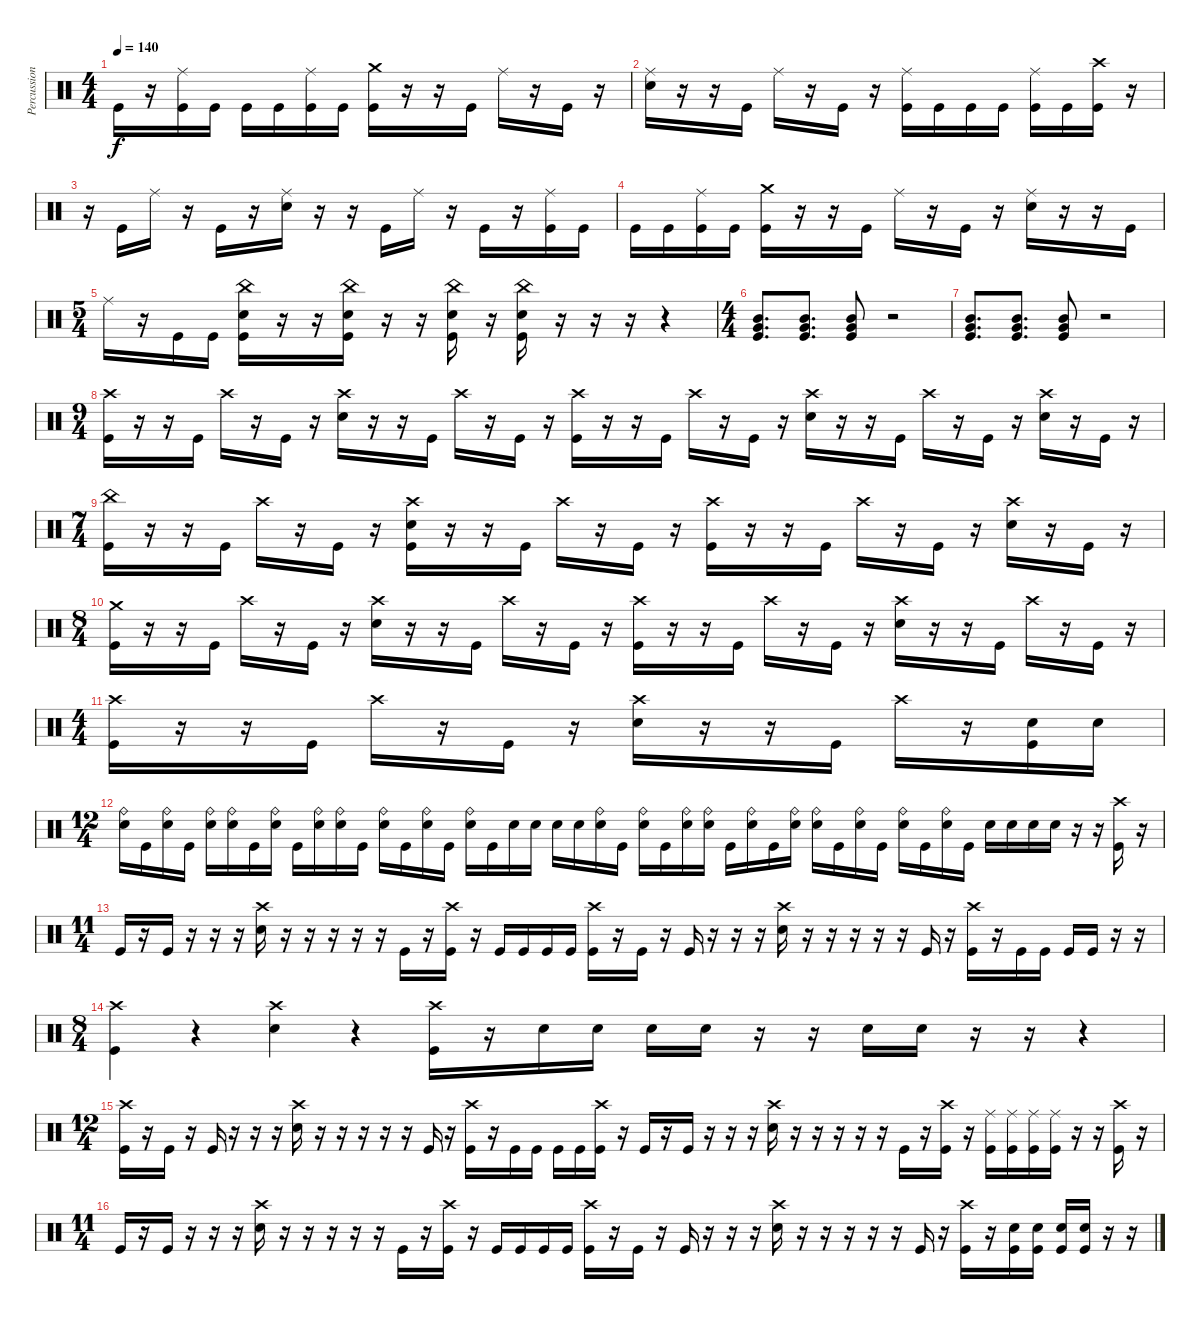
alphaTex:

\track ("Percussion" "Percussion") {instrument percussion}
\staff {score}
\articulation defaults
\ts (4 4)
\tempo 140
\clef neutral
\ks c "Kick (hit)".16{dy f}
r.16 ("Ride (middle)" "Kick (hit)").16 "Kick (hit)".16 "Kick (hit)".16 "Kick (hit)".16 ("Ride (middle)" "Kick (hit)").16 "Kick (hit)".16 ("Crash medium (hit)" "Kick (hit)").16 r.16 r.16 "Kick (hit)".16 "Ride (middle)".16 r.16 "Kick (hit)".16 r.16 |
("Ride (middle)" "Snare (hit) 2").16 r.16 r.16 "Kick (hit)".16 "Ride (middle)".16 r.16 "Kick (hit)".16 r.16 ("Ride (middle)" "Kick (hit)").16 "Kick (hit)".16 "Kick (hit)".16 "Kick (hit)".16 ("Ride (middle)" "Kick (hit)").16 "Kick (hit)".16 ("Crash high (hit)" "Kick (hit)").16 r.16 |
r.16 "Kick (hit)".16 "Ride (middle)".16 r.16 "Kick (hit)".16 r.16 ("Ride (middle)" "Snare (hit) 2").16 r.16 r.16 "Kick (hit)".16 "Ride (middle)".16 r.16 "Kick (hit)".16 r.16 ("Ride (middle)" "Kick (hit)").16 "Kick (hit)".16 |
"Kick (hit)".16 "Kick (hit)".16 ("Ride (middle)" "Kick (hit)").16 "Kick (hit)".16 ("Crash medium (hit)" "Kick (hit)").16 r.16 r.16 "Kick (hit)".16 "Ride (middle)".16 r.16 "Kick (hit)".16 r.16 ("Ride (middle)" "Snare (hit) 2").16 r.16 r.16 "Kick (hit)".16 |
\ts (5 4)
"Ride (middle)".16 r.16 "Kick (hit)".16 "Kick (hit)".16 ("China (hit)" "Snare (hit) 2" "Kick (hit)").16 r.16 r.16 ("China (hit)" "Snare (hit) 2" "Kick (hit)").16 r.16 r.16 ("China (hit)" "Snare (hit) 2" "Kick (hit)").16 r.16 ("China (hit)" "Snare (hit) 2" "Kick (hit)").16 r.16 r.16 r.16 r.4 |
\ts (4 4)
("Mid Tom (hit)" "Very Low Tom (hit)" "Kick (hit)").8{d} ("Mid Tom (hit)" "Very Low Tom (hit)" "Kick (hit)").8{d} ("Mid Tom (hit)" "Very Low Tom (hit)" "Kick (hit)").8 r.2 |
("Mid Tom (hit)" "Very Low Tom (hit)" "Kick (hit)").8{d} ("Mid Tom (hit)" "Very Low Tom (hit)" "Kick (hit)").8{d} ("Mid Tom (hit)" "Very Low Tom (hit)" "Kick (hit)").8 r.2 |
\ts (9 4)
("Crash high (hit)" "Kick (hit)").16 r.16 r.16 "Kick (hit)".16 "Crash high (hit)".16 r.16 "Kick (hit)".16 r.16 ("Crash high (hit)" "Snare (hit) 2").16 r.16 r.16 "Kick (hit)".16 "Crash high (hit)".16 r.16 "Kick (hit)".16 r.16 ("Crash high (hit)" "Kick (hit)").16 r.16 r.16 "Kick (hit)".16 "Crash high (hit)".16 r.16 "Kick (hit)".16 r.16 ("Crash high (hit)" "Snare (hit) 2").16 r.16 r.16 "Kick (hit)".16 "Crash high (hit)".16 r.16 "Kick (hit)".16 r.16 ("Crash high (hit)" "Snare (hit) 2").16 r.16 "Kick (hit)".16 r.16 |
\ts (7 4)
("China (hit)" "Kick (hit)").16 r.16 r.16 "Kick (hit)".16 "Crash high (hit)".16 r.16 "Kick (hit)".16 r.16 ("Crash high (hit)" "Snare (hit) 2" "Kick (hit)").16 r.16 r.16 "Kick (hit)".16 "Crash high (hit)".16 r.16 "Kick (hit)".16 r.16 ("Crash high (hit)" "Kick (hit)").16 r.16 r.16 "Kick (hit)".16 "Crash high (hit)".16 r.16 "Kick (hit)".16 r.16 ("Crash high (hit)" "Snare (hit) 2").16 r.16 "Kick (hit)".16 r.16 |
\ts (8 4)
("Crash medium (hit)" "Kick (hit)").16 r.16 r.16 "Kick (hit)".16 "Crash high (hit)".16 r.16 "Kick (hit)".16 r.16 ("Crash high (hit)" "Snare (hit) 2").16 r.16 r.16 "Kick (hit)".16 "Crash high (hit)".16 r.16 "Kick (hit)".16 r.16 ("Crash high (hit)" "Kick (hit)").16 r.16 r.16 "Kick (hit)".16 "Crash high (hit)".16 r.16 "Kick (hit)".16 r.16 ("Crash high (hit)" "Snare (hit) 2").16 r.16 r.16 "Kick (hit)".16 "Crash high (hit)".16 r.16 "Kick (hit)".16 r.16 |
\ts (4 4)
("Crash high (hit)" "Kick (hit)").16 r.16 r.16 "Kick (hit)".16 "Crash high (hit)".16 r.16 "Kick (hit)".16 r.16 ("Crash high (hit)" "Snare (hit) 2").16 r.16 r.16 "Kick (hit)".16 "Crash high (hit)".16 r.16 ("Snare (hit) 2" "Kick (hit)").16 "Snare (hit) 2".16 |
\ts (12 4)
("Ride (bell)" "Snare (hit) 2").16 "Kick (hit)".16 ("Ride (bell)" "Snare (hit) 2").16 "Kick (hit)".16 ("Ride (bell)" "Snare (hit) 2").16 ("Ride (bell)" "Snare (hit) 2").16 "Kick (hit)".16 ("Ride (bell)" "Snare (hit) 2").16 "Kick (hit)".16 ("Ride (bell)" "Snare (hit) 2").16 ("Ride (bell)" "Snare (hit) 2").16 "Kick (hit)".16 ("Ride (bell)" "Snare (hit) 2").16 "Kick (hit)".16 ("Ride (bell)" "Snare (hit) 2").16 "Kick (hit)".16 ("Ride (bell)" "Snare (hit) 2").16 "Kick (hit)".16 "Snare (hit) 2".16 "Snare (hit) 2".16 "Snare (hit) 2".16 "Snare (hit) 2".16 ("Ride (bell)" "Snare (hit) 2").16 "Kick (hit)".16 ("Ride (bell)" "Snare (hit) 2").16 "Kick (hit)".16 ("Ride (bell)" "Snare (hit) 2").16 ("Ride (bell)" "Snare (hit) 2").16 "Kick (hit)".16 ("Ride (bell)" "Snare (hit) 2").16 "Kick (hit)".16 ("Ride (bell)" "Snare (hit) 2").16 ("Ride (bell)" "Snare (hit) 2").16 "Kick (hit)".16 ("Ride (bell)" "Snare (hit) 2").16 "Kick (hit)".16 ("Ride (bell)" "Snare (hit) 2").16 "Kick (hit)".16 ("Ride (bell)" "Snare (hit) 2").16 "Kick (hit)".16 "Snare (hit) 2".16 "Snare (hit) 2".16 "Snare (hit) 2".16 "Snare (hit) 2".16 r.16 r.16 ("Crash high (hit)" "Kick (hit)").16 r.16 |
\ts (11 4)
"Kick (hit)".16 r.16 "Kick (hit)".16 r.16 r.16 r.16 ("Crash high (hit)" "Snare (hit) 2").16 r.16 r.16 r.16 r.16 r.16 "Kick (hit)".16 r.16 ("Crash high (hit)" "Kick (hit)").16 r.16 "Kick (hit)".16 "Kick (hit)".16 "Kick (hit)".16 "Kick (hit)".16 ("Crash high (hit)" "Kick (hit)").16 r.16 "Kick (hit)".16 r.16 "Kick (hit)".16 r.16 r.16 r.16 ("Crash high (hit)" "Snare (hit) 2").16 r.16 r.16 r.16 r.16 r.16 "Kick (hit)".16 r.16 ("Crash high (hit)" "Kick (hit)").16 r.16 "Kick (hit)".16 "Kick (hit)".16 "Kick (hit)".16 "Kick (hit)".16 r.16 r.16 |
\ts (8 4)
("Crash high (hit)" "Kick (hit)").4 r.4 ("Crash high (hit)" "Snare (hit) 2").4 r.4 ("Crash high (hit)" "Kick (hit)").16 r.16 "Snare (hit) 2".16 "Snare (hit) 2".16 "Snare (hit) 2".16 "Snare (hit) 2".16 r.16 r.16 "Snare (hit) 2".16 "Snare (hit) 2".16 r.16 r.16 r.4 |
\ts (12 4)
("Crash high (hit)" "Kick (hit)").16 r.16 "Kick (hit)".16 r.16 "Kick (hit)".16 r.16 r.16 r.16 ("Crash high (hit)" "Snare (hit) 2").16 r.16 r.16 r.16 r.16 r.16 "Kick (hit)".16 r.16 ("Crash high (hit)" "Kick (hit)").16 r.16 "Kick (hit)".16 "Kick (hit)".16 "Kick (hit)".16 "Kick (hit)".16 ("Crash high (hit)" "Kick (hit)").16 r.16 "Kick (hit)".16 r.16 "Kick (hit)".16 r.16 r.16 r.16 ("Crash high (hit)" "Snare (hit) 2").16 r.16 r.16 r.16 r.16 r.16 "Kick (hit)".16 r.16 ("Crash high (hit)" "Kick (hit)").16 r.16 ("Ride (middle)" "Kick (hit)").16 ("Ride (middle)" "Kick (hit)").16 ("Ride (middle)" "Kick (hit)").16 ("Ride (middle)" "Kick (hit)").16 r.16 r.16 ("Crash high (hit)" "Kick (hit)").16 r.16 |
\ts (11 4)
"Kick (hit)".16 r.16 "Kick (hit)".16 r.16 r.16 r.16 ("Crash high (hit)" "Snare (hit) 2").16 r.16 r.16 r.16 r.16 r.16 "Kick (hit)".16 r.16 ("Crash high (hit)" "Kick (hit)").16 r.16 "Kick (hit)".16 "Kick (hit)".16 "Kick (hit)".16 "Kick (hit)".16 ("Crash high (hit)" "Kick (hit)").16 r.16 "Kick (hit)".16 r.16 "Kick (hit)".16 r.16 r.16 r.16 ("Crash high (hit)" "Snare (hit) 2").16 r.16 r.16 r.16 r.16 r.16 "Kick (hit)".16 r.16 ("Crash high (hit)" "Kick (hit)").16 r.16 ("Snare (hit) 2" "Kick (hit)").16 ("Snare (hit) 2" "Kick (hit)").16 ("Snare (hit) 2" "Kick (hit)").16 ("Snare (hit) 2" "Kick (hit)").16 r.16 r.16
